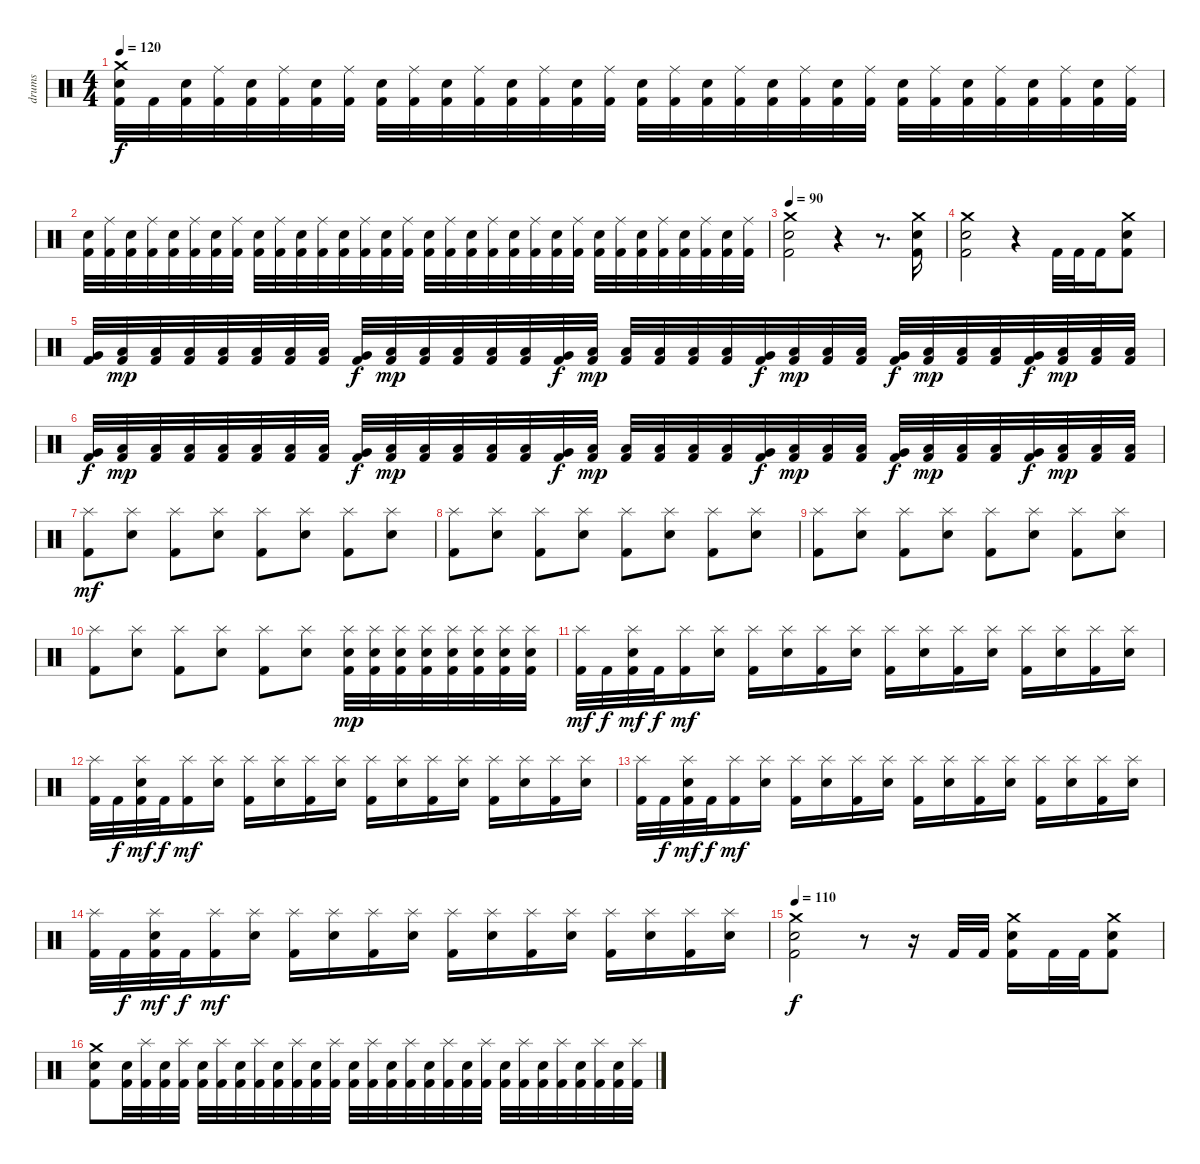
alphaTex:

\track ("drums" "drums") {instrument percussion}
\staff {score}
\articulation defaults
\ts (4 4)
\tempo 120
\clef neutral
\ks c
("Crash medium (hit)" "Electric Snare (hit)" "Kick (hit) 2").32{dy f} "Kick (hit) 2".32 ("Electric Snare (hit)" "Kick (hit) 2").32 ("Ride (middle)" "Kick (hit) 2").32 ("Electric Snare (hit)" "Kick (hit) 2").32 ("Ride (middle)" "Kick (hit) 2").32 ("Electric Snare (hit)" "Kick (hit) 2").32 ("Ride (middle)" "Kick (hit) 2").32 ("Electric Snare (hit)" "Kick (hit) 2").32 ("Ride (middle)" "Kick (hit) 2").32 ("Electric Snare (hit)" "Kick (hit) 2").32 ("Ride (middle)" "Kick (hit) 2").32 ("Electric Snare (hit)" "Kick (hit) 2").32 ("Ride (middle)" "Kick (hit) 2").32 ("Electric Snare (hit)" "Kick (hit) 2").32 ("Ride (middle)" "Kick (hit) 2").32 ("Electric Snare (hit)" "Kick (hit) 2").32 ("Ride (middle)" "Kick (hit) 2").32 ("Electric Snare (hit)" "Kick (hit) 2").32 ("Ride (middle)" "Kick (hit) 2").32 ("Electric Snare (hit)" "Kick (hit) 2").32 ("Ride (middle)" "Kick (hit) 2").32 ("Electric Snare (hit)" "Kick (hit) 2").32 ("Ride (middle)" "Kick (hit) 2").32 ("Electric Snare (hit)" "Kick (hit) 2").32 ("Ride (middle)" "Kick (hit) 2").32 ("Electric Snare (hit)" "Kick (hit) 2").32 ("Ride (middle)" "Kick (hit) 2").32 ("Electric Snare (hit)" "Kick (hit) 2").32 ("Ride (middle)" "Kick (hit) 2").32 ("Electric Snare (hit)" "Kick (hit) 2").32 ("Ride (middle)" "Kick (hit) 2").32 |
("Electric Snare (hit)" "Kick (hit) 2").32 ("Ride (middle)" "Kick (hit) 2").32 ("Electric Snare (hit)" "Kick (hit) 2").32 ("Ride (middle)" "Kick (hit) 2").32 ("Electric Snare (hit)" "Kick (hit) 2").32 ("Ride (middle)" "Kick (hit) 2").32 ("Electric Snare (hit)" "Kick (hit) 2").32 ("Ride (middle)" "Kick (hit) 2").32 ("Electric Snare (hit)" "Kick (hit) 2").32 ("Ride (middle)" "Kick (hit) 2").32 ("Electric Snare (hit)" "Kick (hit) 2").32 ("Ride (middle)" "Kick (hit) 2").32 ("Electric Snare (hit)" "Kick (hit) 2").32 ("Ride (middle)" "Kick (hit) 2").32 ("Electric Snare (hit)" "Kick (hit) 2").32 ("Ride (middle)" "Kick (hit) 2").32 ("Electric Snare (hit)" "Kick (hit) 2").32 ("Ride (middle)" "Kick (hit) 2").32 ("Electric Snare (hit)" "Kick (hit) 2").32 ("Ride (middle)" "Kick (hit) 2").32 ("Electric Snare (hit)" "Kick (hit) 2").32 ("Ride (middle)" "Kick (hit) 2").32 ("Electric Snare (hit)" "Kick (hit) 2").32 ("Ride (middle)" "Kick (hit) 2").32 ("Electric Snare (hit)" "Kick (hit) 2").32 ("Ride (middle)" "Kick (hit) 2").32 ("Electric Snare (hit)" "Kick (hit) 2").32 ("Ride (middle)" "Kick (hit) 2").32 ("Electric Snare (hit)" "Kick (hit) 2").32 ("Ride (middle)" "Kick (hit) 2").32 ("Electric Snare (hit)" "Kick (hit) 2").32 ("Ride (middle)" "Kick (hit) 2").32 |
\tempo 90
("Crash medium (hit)" "Electric Snare (hit)" "Kick (hit) 2").2 r.4 r.8{d} ("Crash medium (hit)" "Electric Snare (hit)" "Kick (hit) 2").16 |
("Crash medium (hit)" "Electric Snare (hit)" "Kick (hit) 2").2 r.4 "Kick (hit) 2".32 "Kick (hit) 2".32 "Kick (hit) 2".16 ("Crash medium (hit)" "Electric Snare (hit)" "Kick (hit) 2").8 |
("Very Low Tom (hit)" "Kick (hit) 2").32 ("Low Floor Tom (hit)" "Kick (hit) 2").32{dy mp} ("Low Floor Tom (hit)" "Kick (hit) 2").32 ("Low Floor Tom (hit)" "Kick (hit) 2").32 ("Low Floor Tom (hit)" "Kick (hit) 2").32 ("Low Floor Tom (hit)" "Kick (hit) 2").32 ("Low Floor Tom (hit)" "Kick (hit) 2").32 ("Low Floor Tom (hit)" "Kick (hit) 2").32 ("Very Low Tom (hit)" "Kick (hit) 2").32{dy f} ("Low Floor Tom (hit)" "Kick (hit) 2").32{dy mp} ("Low Floor Tom (hit)" "Kick (hit) 2").32 ("Low Floor Tom (hit)" "Kick (hit) 2").32 ("Low Floor Tom (hit)" "Kick (hit) 2").32 ("Low Floor Tom (hit)" "Kick (hit) 2").32 ("Very Low Tom (hit)" "Kick (hit) 2").32{dy f} ("Low Floor Tom (hit)" "Kick (hit) 2").32{dy mp} ("Low Floor Tom (hit)" "Kick (hit) 2").32 ("Low Floor Tom (hit)" "Kick (hit) 2").32 ("Low Floor Tom (hit)" "Kick (hit) 2").32 ("Low Floor Tom (hit)" "Kick (hit) 2").32 ("Very Low Tom (hit)" "Kick (hit) 2").32{dy f} ("Low Floor Tom (hit)" "Kick (hit) 2").32{dy mp} ("Low Floor Tom (hit)" "Kick (hit) 2").32 ("Low Floor Tom (hit)" "Kick (hit) 2").32 ("Very Low Tom (hit)" "Kick (hit) 2").32{dy f} ("Low Floor Tom (hit)" "Kick (hit) 2").32{dy mp} ("Low Floor Tom (hit)" "Kick (hit) 2").32 ("Low Floor Tom (hit)" "Kick (hit) 2").32 ("Very Low Tom (hit)" "Kick (hit) 2").32{dy f} ("Low Floor Tom (hit)" "Kick (hit) 2").32{dy mp} ("Low Floor Tom (hit)" "Kick (hit) 2").32 ("Low Floor Tom (hit)" "Kick (hit) 2").32 |
("Very Low Tom (hit)" "Kick (hit) 2").32{dy f} ("Low Floor Tom (hit)" "Kick (hit) 2").32{dy mp} ("Low Floor Tom (hit)" "Kick (hit) 2").32 ("Low Floor Tom (hit)" "Kick (hit) 2").32 ("Low Floor Tom (hit)" "Kick (hit) 2").32 ("Low Floor Tom (hit)" "Kick (hit) 2").32 ("Low Floor Tom (hit)" "Kick (hit) 2").32 ("Low Floor Tom (hit)" "Kick (hit) 2").32 ("Very Low Tom (hit)" "Kick (hit) 2").32{dy f} ("Low Floor Tom (hit)" "Kick (hit) 2").32{dy mp} ("Low Floor Tom (hit)" "Kick (hit) 2").32 ("Low Floor Tom (hit)" "Kick (hit) 2").32 ("Low Floor Tom (hit)" "Kick (hit) 2").32 ("Low Floor Tom (hit)" "Kick (hit) 2").32 ("Very Low Tom (hit)" "Kick (hit) 2").32{dy f} ("Low Floor Tom (hit)" "Kick (hit) 2").32{dy mp} ("Low Floor Tom (hit)" "Kick (hit) 2").32 ("Low Floor Tom (hit)" "Kick (hit) 2").32 ("Low Floor Tom (hit)" "Kick (hit) 2").32 ("Low Floor Tom (hit)" "Kick (hit) 2").32 ("Very Low Tom (hit)" "Kick (hit) 2").32{dy f} ("Low Floor Tom (hit)" "Kick (hit) 2").32{dy mp} ("Low Floor Tom (hit)" "Kick (hit) 2").32 ("Low Floor Tom (hit)" "Kick (hit) 2").32 ("Very Low Tom (hit)" "Kick (hit) 2").32{dy f} ("Low Floor Tom (hit)" "Kick (hit) 2").32{dy mp} ("Low Floor Tom (hit)" "Kick (hit) 2").32 ("Low Floor Tom (hit)" "Kick (hit) 2").32 ("Very Low Tom (hit)" "Kick (hit) 2").32{dy f} ("Low Floor Tom (hit)" "Kick (hit) 2").32{dy mp} ("Low Floor Tom (hit)" "Kick (hit) 2").32 ("Low Floor Tom (hit)" "Kick (hit) 2").32 |
("Splash (hit)" "Kick (hit) 2").8{dy mf} ("Splash (hit)" "Electric Snare (hit)").8 ("Splash (hit)" "Kick (hit) 2").8 ("Splash (hit)" "Electric Snare (hit)").8 ("Splash (hit)" "Kick (hit) 2").8 ("Splash (hit)" "Electric Snare (hit)").8 ("Splash (hit)" "Kick (hit) 2").8 ("Splash (hit)" "Electric Snare (hit)").8 |
("Splash (hit)" "Kick (hit) 2").8 ("Splash (hit)" "Electric Snare (hit)").8 ("Splash (hit)" "Kick (hit) 2").8 ("Splash (hit)" "Electric Snare (hit)").8 ("Splash (hit)" "Kick (hit) 2").8 ("Splash (hit)" "Electric Snare (hit)").8 ("Splash (hit)" "Kick (hit) 2").8 ("Splash (hit)" "Electric Snare (hit)").8 |
("Splash (hit)" "Kick (hit) 2").8 ("Splash (hit)" "Electric Snare (hit)").8 ("Splash (hit)" "Kick (hit) 2").8 ("Splash (hit)" "Electric Snare (hit)").8 ("Splash (hit)" "Kick (hit) 2").8 ("Splash (hit)" "Electric Snare (hit)").8 ("Splash (hit)" "Kick (hit) 2").8 ("Splash (hit)" "Electric Snare (hit)").8 |
("Splash (hit)" "Kick (hit) 2").8 ("Splash (hit)" "Electric Snare (hit)").8 ("Splash (hit)" "Kick (hit) 2").8 ("Splash (hit)" "Electric Snare (hit)").8 ("Splash (hit)" "Kick (hit) 2").8 ("Splash (hit)" "Electric Snare (hit)").8 ("Splash (hit)" "Electric Snare (hit)" "Kick (hit) 2").32{dy mp} ("Splash (hit)" "Electric Snare (hit)" "Kick (hit) 2").32 ("Splash (hit)" "Electric Snare (hit)" "Kick (hit) 2").32 ("Splash (hit)" "Electric Snare (hit)" "Kick (hit) 2").32 ("Splash (hit)" "Electric Snare (hit)" "Kick (hit) 2").32 ("Splash (hit)" "Electric Snare (hit)" "Kick (hit) 2").32 ("Splash (hit)" "Electric Snare (hit)" "Kick (hit) 2").32 ("Splash (hit)" "Electric Snare (hit)" "Kick (hit) 2").32 |
("Splash (hit)" "Kick (hit) 2").32{dy mf} "Kick (hit) 2".32{dy f} ("Splash (hit)" "Electric Snare (hit)" "Kick (hit) 2").32{dy mf} "Kick (hit) 2".32{dy f} ("Splash (hit)" "Kick (hit) 2").16{dy mf} ("Splash (hit)" "Electric Snare (hit)").16 ("Splash (hit)" "Kick (hit) 2").16 ("Splash (hit)" "Electric Snare (hit)").16 ("Splash (hit)" "Kick (hit) 2").16 ("Splash (hit)" "Electric Snare (hit)").16 ("Splash (hit)" "Kick (hit) 2").16 ("Splash (hit)" "Electric Snare (hit)").16 ("Splash (hit)" "Kick (hit) 2").16 ("Splash (hit)" "Electric Snare (hit)").16 ("Splash (hit)" "Kick (hit) 2").16 ("Splash (hit)" "Electric Snare (hit)").16 ("Splash (hit)" "Kick (hit) 2").16 ("Splash (hit)" "Electric Snare (hit)").16 |
("Splash (hit)" "Kick (hit) 2").32 "Kick (hit) 2".32{dy f} ("Splash (hit)" "Electric Snare (hit)" "Kick (hit) 2").32{dy mf} "Kick (hit) 2".32{dy f} ("Splash (hit)" "Kick (hit) 2").16{dy mf} ("Splash (hit)" "Electric Snare (hit)").16 ("Splash (hit)" "Kick (hit) 2").16 ("Splash (hit)" "Electric Snare (hit)").16 ("Splash (hit)" "Kick (hit) 2").16 ("Splash (hit)" "Electric Snare (hit)").16 ("Splash (hit)" "Kick (hit) 2").16 ("Splash (hit)" "Electric Snare (hit)").16 ("Splash (hit)" "Kick (hit) 2").16 ("Splash (hit)" "Electric Snare (hit)").16 ("Splash (hit)" "Kick (hit) 2").16 ("Splash (hit)" "Electric Snare (hit)").16 ("Splash (hit)" "Kick (hit) 2").16 ("Splash (hit)" "Electric Snare (hit)").16 |
("Splash (hit)" "Kick (hit) 2").32 "Kick (hit) 2".32{dy f} ("Splash (hit)" "Electric Snare (hit)" "Kick (hit) 2").32{dy mf} "Kick (hit) 2".32{dy f} ("Splash (hit)" "Kick (hit) 2").16{dy mf} ("Splash (hit)" "Electric Snare (hit)").16 ("Splash (hit)" "Kick (hit) 2").16 ("Splash (hit)" "Electric Snare (hit)").16 ("Splash (hit)" "Kick (hit) 2").16 ("Splash (hit)" "Electric Snare (hit)").16 ("Splash (hit)" "Kick (hit) 2").16 ("Splash (hit)" "Electric Snare (hit)").16 ("Splash (hit)" "Kick (hit) 2").16 ("Splash (hit)" "Electric Snare (hit)").16 ("Splash (hit)" "Kick (hit) 2").16 ("Splash (hit)" "Electric Snare (hit)").16 ("Splash (hit)" "Kick (hit) 2").16 ("Splash (hit)" "Electric Snare (hit)").16 |
("Splash (hit)" "Kick (hit) 2").32 "Kick (hit) 2".32{dy f} ("Splash (hit)" "Electric Snare (hit)" "Kick (hit) 2").32{dy mf} "Kick (hit) 2".32{dy f} ("Splash (hit)" "Kick (hit) 2").16{dy mf} ("Splash (hit)" "Electric Snare (hit)").16 ("Splash (hit)" "Kick (hit) 2").16 ("Splash (hit)" "Electric Snare (hit)").16 ("Splash (hit)" "Kick (hit) 2").16 ("Splash (hit)" "Electric Snare (hit)").16 ("Splash (hit)" "Kick (hit) 2").16 ("Splash (hit)" "Electric Snare (hit)").16 ("Splash (hit)" "Kick (hit) 2").16 ("Splash (hit)" "Electric Snare (hit)").16 ("Splash (hit)" "Kick (hit) 2").16 ("Splash (hit)" "Electric Snare (hit)").16 ("Splash (hit)" "Kick (hit) 2").16 ("Splash (hit)" "Electric Snare (hit)").16 |
\tempo 110
("Crash medium (hit)" "Electric Snare (hit)" "Kick (hit) 2").2{dy f} r.8 r.16 "Kick (hit) 2".32 "Kick (hit) 2".32 ("Crash medium (hit)" "Electric Snare (hit)" "Kick (hit) 2").16 "Kick (hit) 2".32 "Kick (hit) 2".32 ("Crash medium (hit)" "Electric Snare (hit)" "Kick (hit) 2").8 |
("Crash medium (hit)" "Electric Snare (hit)" "Kick (hit) 2").8 ("Electric Snare (hit)" "Kick (hit) 2").32 ("Splash (hit)" "Kick (hit) 2").32 ("Electric Snare (hit)" "Kick (hit) 2").32 ("Splash (hit)" "Kick (hit) 2").32 ("Electric Snare (hit)" "Kick (hit) 2").32 ("Splash (hit)" "Kick (hit) 2").32 ("Electric Snare (hit)" "Kick (hit) 2").32 ("Splash (hit)" "Kick (hit) 2").32 ("Electric Snare (hit)" "Kick (hit) 2").32 ("Splash (hit)" "Kick (hit) 2").32 ("Electric Snare (hit)" "Kick (hit) 2").32 ("Splash (hit)" "Kick (hit) 2").32 ("Electric Snare (hit)" "Kick (hit) 2").32 ("Splash (hit)" "Kick (hit) 2").32 ("Electric Snare (hit)" "Kick (hit) 2").32 ("Splash (hit)" "Kick (hit) 2").32 ("Electric Snare (hit)" "Kick (hit) 2").32 ("Splash (hit)" "Kick (hit) 2").32 ("Electric Snare (hit)" "Kick (hit) 2").32 ("Splash (hit)" "Kick (hit) 2").32 ("Electric Snare (hit)" "Kick (hit) 2").32 ("Splash (hit)" "Kick (hit) 2").32 ("Electric Snare (hit)" "Kick (hit) 2").32 ("Splash (hit)" "Kick (hit) 2").32 ("Electric Snare (hit)" "Kick (hit) 2").32 ("Splash (hit)" "Kick (hit) 2").32 ("Electric Snare (hit)" "Kick (hit) 2").32 ("Splash (hit)" "Kick (hit) 2").32
